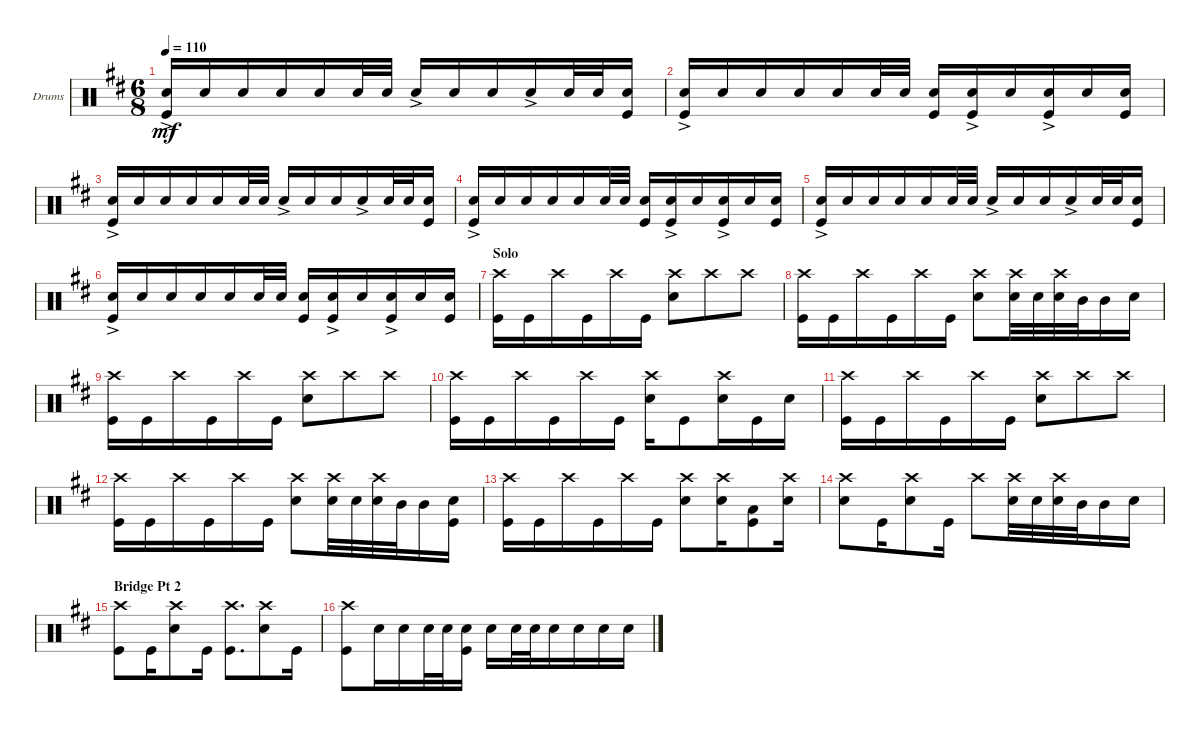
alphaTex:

\defaultSystemsLayout 4
\bracketExtendMode groupsimilarinstruments
\firstSystemTrackNameOrientation horizontal
\otherSystemsTrackNameOrientation horizontal
\track ("Drumkit" "Drums") {instrument percussion}
\staff {score}
\articulation defaults
\ts (6 8)
\tempo 110
\clef neutral
\ks d
("Kick (hit)" "Snare (hit) 2"{ac}).16{dy mf} "Snare (hit) 2".16 "Snare (hit) 2".16 "Snare (hit) 2".16 "Snare (hit) 2".16 "Snare (hit) 2".32 "Snare (hit) 2".32 "Snare (hit) 2"{ac}.16 "Snare (hit) 2".16 "Snare (hit) 2".16 "Snare (hit) 2"{ac}.16 "Snare (hit) 2".32 "Snare (hit) 2".32 ("Snare (hit) 2" "Kick (hit)").16 |
("Kick (hit)" "Snare (hit) 2"{ac}).16 "Snare (hit) 2".16 "Snare (hit) 2".16 "Snare (hit) 2".16 "Snare (hit) 2".16 "Snare (hit) 2".32 "Snare (hit) 2".32 ("Kick (hit)" "Snare (hit) 2").16 ("Kick (hit)" "Snare (hit) 2"{ac}).16 "Snare (hit) 2".16 ("Kick (hit)" "Snare (hit) 2"{ac}).16 "Snare (hit) 2".16 ("Kick (hit)" "Snare (hit) 2").16 |
("Kick (hit)" "Snare (hit) 2"{ac}).16 "Snare (hit) 2".16 "Snare (hit) 2".16 "Snare (hit) 2".16 "Snare (hit) 2".16 "Snare (hit) 2".32 "Snare (hit) 2".32 "Snare (hit) 2"{ac}.16 "Snare (hit) 2".16 "Snare (hit) 2".16 "Snare (hit) 2"{ac}.16 "Snare (hit) 2".32 "Snare (hit) 2".32 ("Snare (hit) 2" "Kick (hit)").16 |
("Kick (hit)" "Snare (hit) 2"{ac}).16 "Snare (hit) 2".16 "Snare (hit) 2".16 "Snare (hit) 2".16 "Snare (hit) 2".16 "Snare (hit) 2".32 "Snare (hit) 2".32 ("Kick (hit)" "Snare (hit) 2").16 ("Kick (hit)" "Snare (hit) 2"{ac}).16 "Snare (hit) 2".16 ("Kick (hit)" "Snare (hit) 2"{ac}).16 "Snare (hit) 2".16 ("Kick (hit)" "Snare (hit) 2").16 |
("Kick (hit)" "Snare (hit) 2"{ac}).16 "Snare (hit) 2".16 "Snare (hit) 2".16 "Snare (hit) 2".16 "Snare (hit) 2".16 "Snare (hit) 2".32 "Snare (hit) 2".32 "Snare (hit) 2"{ac}.16 "Snare (hit) 2".16 "Snare (hit) 2".16 "Snare (hit) 2"{ac}.16 "Snare (hit) 2".32 "Snare (hit) 2".32 ("Snare (hit) 2" "Kick (hit)").16 |
("Kick (hit)" "Snare (hit) 2"{ac}).16 "Snare (hit) 2".16 "Snare (hit) 2".16 "Snare (hit) 2".16 "Snare (hit) 2".16 "Snare (hit) 2".32 "Snare (hit) 2".32 ("Kick (hit)" "Snare (hit) 2").16 ("Kick (hit)" "Snare (hit) 2"{ac}).16 "Snare (hit) 2".16 ("Kick (hit)" "Snare (hit) 2"{ac}).16 "Snare (hit) 2".16 ("Kick (hit)" "Snare (hit) 2").16 |
\section ("" "Solo")
("Kick (hit)" "Crash high (hit)").16 "Kick (hit)".16 "Crash high (hit)".16 "Kick (hit)".16 "Crash high (hit)".16 "Kick (hit)".16 ("Snare (hit) 2" "Crash high (hit)").8 "Crash high (hit)".8 "Crash high (hit)".8 |
("Kick (hit)" "Crash high (hit)").16 "Kick (hit)".16 "Crash high (hit)".16 "Kick (hit)".16 "Crash high (hit)".16 "Kick (hit)".16 ("Snare (hit) 2" "Crash high (hit)").8 ("Snare (hit) 2" "Crash high (hit)").32 "Snare (hit) 2".32 ("Snare (hit) 2" "Crash high (hit)").32 "Mid Tom (hit)".32 "Mid Tom (hit)".16 "Snare (hit) 2".16 |
("Kick (hit)" "Crash high (hit)").16 "Kick (hit)".16 "Crash high (hit)".16 "Kick (hit)".16 "Crash high (hit)".16 "Kick (hit)".16 ("Snare (hit) 2" "Crash high (hit)").8 "Crash high (hit)".8 "Crash high (hit)".8 |
("Kick (hit)" "Crash high (hit)").16 "Kick (hit)".16 "Crash high (hit)".16 "Kick (hit)".16 "Crash high (hit)".16 "Kick (hit)".16 ("Snare (hit) 2" "Crash high (hit)").16 "Kick (hit)".8 ("Snare (hit) 2" "Crash high (hit)").16 "Kick (hit)".16 "Snare (hit) 2".16 |
("Kick (hit)" "Crash high (hit)").16 "Kick (hit)".16 "Crash high (hit)".16 "Kick (hit)".16 "Crash high (hit)".16 "Kick (hit)".16 ("Snare (hit) 2" "Crash high (hit)").8 "Crash high (hit)".8 "Crash high (hit)".8 |
("Kick (hit)" "Crash high (hit)").16 "Kick (hit)".16 "Crash high (hit)".16 "Kick (hit)".16 "Crash high (hit)".16 "Kick (hit)".16 ("Snare (hit) 2" "Crash high (hit)").8 ("Snare (hit) 2" "Crash high (hit)").32 "Snare (hit) 2".32 ("Snare (hit) 2" "Crash high (hit)").32 "Mid Tom (hit)".32 "Mid Tom (hit)".16 ("Snare (hit) 2" "Kick (hit)").16 |
("Kick (hit)" "Crash high (hit)").16 "Kick (hit)".16 "Crash high (hit)".16 "Kick (hit)".16 "Crash high (hit)".16 "Kick (hit)".16 ("Snare (hit) 2" "Crash high (hit)").8 ("Crash high (hit)" "Snare (hit) 2").16 ("Kick (hit)" "Low Tom (hit)").8 ("Crash high (hit)" "Snare (hit) 2").16 |
("Crash high (hit)" "Snare (hit) 2").8 "Kick (hit)".16 ("Crash high (hit)" "Snare (hit) 2").8 "Kick (hit)".16 "Crash high (hit)".8 ("Snare (hit) 2" "Crash high (hit)").32 "Snare (hit) 2".32 ("Snare (hit) 2" "Crash high (hit)").32 "Mid Tom (hit)".32 "Mid Tom (hit)".16 "Snare (hit) 2".16 |
\section ("" "Bridge Pt 2")
("Kick (hit)" "Crash high (hit)").8 "Kick (hit)".16 ("Snare (hit) 2" "Crash high (hit)").8 "Kick (hit)".16 ("Kick (hit)" "Crash high (hit)").8{d} ("Snare (hit) 2" "Crash high (hit)").8 "Kick (hit)".16 |
("Kick (hit)" "Crash high (hit)").8 "Snare (hit) 2".16 "Snare (hit) 2".16 "Snare (hit) 2".32 "Snare (hit) 2".32 ("Kick (hit)" "Snare (hit) 2").16 "Snare (hit) 2".16 "Snare (hit) 2".32 "Snare (hit) 2".32 "Snare (hit) 2".16 "Snare (hit) 2".16 "Snare (hit) 2".16 "Snare (hit) 2".16
